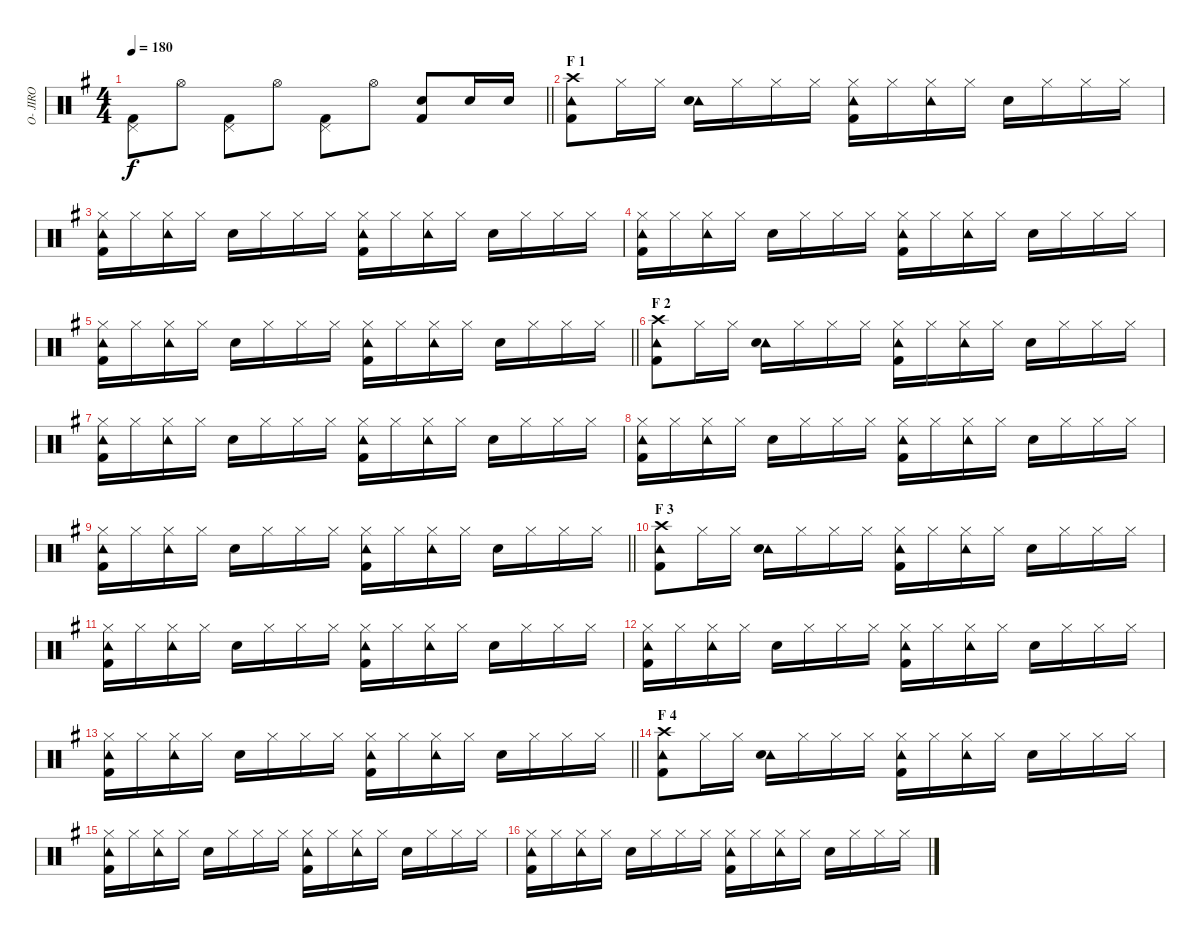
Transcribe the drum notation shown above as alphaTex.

\track ("O- JIRO" "O- JIRO") {instrument percussion}
\staff {score}
\articulation defaults
\ts (4 4)
\tempo 180
\clef neutral
\barLineRight lightlight
\ks g
("Pedal Hi-Hat (hit)" "Kick (hit) 2").8{dy f} "Hi-Hat (open)".8 ("Pedal Hi-Hat (hit)" "Kick (hit) 2").8 "Hi-Hat (open)".8 ("Pedal Hi-Hat (hit)" "Kick (hit) 2").8 "Hi-Hat (open)".8 ("Snare (hit) 2" "Kick (hit) 2").8 "Snare (hit) 2".16 "Snare (hit) 2".16 |
\section ("" "F 1")
("Crash high (hit)" "Kick (hit) 2" "Tambourine (hit)").8 "Hi-Hat (closed)".16 "Hi-Hat (closed)".16 ("Tambourine (hit)" "Snare (hit) 2").16 "Hi-Hat (closed)".16 "Hi-Hat (closed)".16 "Hi-Hat (closed)".16 ("Tambourine (hit)" "Kick (hit) 2" "Hi-Hat (closed)").16 "Hi-Hat (closed)".16 ("Hi-Hat (closed)" "Tambourine (hit)").16 "Hi-Hat (closed)".16 "Snare (hit) 2".16 "Hi-Hat (closed)".16 "Hi-Hat (closed)".16 "Hi-Hat (closed)".16 |
("Tambourine (hit)" "Kick (hit) 2" "Hi-Hat (closed)").16 "Hi-Hat (closed)".16 ("Hi-Hat (closed)" "Tambourine (hit)").16 "Hi-Hat (closed)".16 "Snare (hit) 2".16 "Hi-Hat (closed)".16 "Hi-Hat (closed)".16 "Hi-Hat (closed)".16 ("Tambourine (hit)" "Kick (hit) 2" "Hi-Hat (closed)").16 "Hi-Hat (closed)".16 ("Hi-Hat (closed)" "Tambourine (hit)").16 "Hi-Hat (closed)".16 "Snare (hit) 2".16 "Hi-Hat (closed)".16 "Hi-Hat (closed)".16 "Hi-Hat (closed)".16 |
("Tambourine (hit)" "Kick (hit) 2" "Hi-Hat (closed)").16 "Hi-Hat (closed)".16 ("Hi-Hat (closed)" "Tambourine (hit)").16 "Hi-Hat (closed)".16 "Snare (hit) 2".16 "Hi-Hat (closed)".16 "Hi-Hat (closed)".16 "Hi-Hat (closed)".16 ("Tambourine (hit)" "Kick (hit) 2" "Hi-Hat (closed)").16 "Hi-Hat (closed)".16 ("Hi-Hat (closed)" "Tambourine (hit)").16 "Hi-Hat (closed)".16 "Snare (hit) 2".16 "Hi-Hat (closed)".16 "Hi-Hat (closed)".16 "Hi-Hat (closed)".16 |
\barLineRight lightlight
("Tambourine (hit)" "Kick (hit) 2" "Hi-Hat (closed)").16 "Hi-Hat (closed)".16 ("Hi-Hat (closed)" "Tambourine (hit)").16 "Hi-Hat (closed)".16 "Snare (hit) 2".16 "Hi-Hat (closed)".16 "Hi-Hat (closed)".16 "Hi-Hat (closed)".16 ("Tambourine (hit)" "Kick (hit) 2" "Hi-Hat (closed)").16 "Hi-Hat (closed)".16 ("Hi-Hat (closed)" "Tambourine (hit)").16 "Hi-Hat (closed)".16 "Snare (hit) 2".16 "Hi-Hat (closed)".16 "Hi-Hat (closed)".16 "Hi-Hat (closed)".16 |
\section ("" "F 2")
("Crash high (hit)" "Kick (hit) 2" "Tambourine (hit)").8 "Hi-Hat (closed)".16 "Hi-Hat (closed)".16 ("Tambourine (hit)" "Snare (hit) 2").16 "Hi-Hat (closed)".16 "Hi-Hat (closed)".16 "Hi-Hat (closed)".16 ("Tambourine (hit)" "Kick (hit) 2" "Hi-Hat (closed)").16 "Hi-Hat (closed)".16 ("Hi-Hat (closed)" "Tambourine (hit)").16 "Hi-Hat (closed)".16 "Snare (hit) 2".16 "Hi-Hat (closed)".16 "Hi-Hat (closed)".16 "Hi-Hat (closed)".16 |
("Tambourine (hit)" "Kick (hit) 2" "Hi-Hat (closed)").16 "Hi-Hat (closed)".16 ("Hi-Hat (closed)" "Tambourine (hit)").16 "Hi-Hat (closed)".16 "Snare (hit) 2".16 "Hi-Hat (closed)".16 "Hi-Hat (closed)".16 "Hi-Hat (closed)".16 ("Tambourine (hit)" "Kick (hit) 2" "Hi-Hat (closed)").16 "Hi-Hat (closed)".16 ("Hi-Hat (closed)" "Tambourine (hit)").16 "Hi-Hat (closed)".16 "Snare (hit) 2".16 "Hi-Hat (closed)".16 "Hi-Hat (closed)".16 "Hi-Hat (closed)".16 |
("Tambourine (hit)" "Kick (hit) 2" "Hi-Hat (closed)").16 "Hi-Hat (closed)".16 ("Hi-Hat (closed)" "Tambourine (hit)").16 "Hi-Hat (closed)".16 "Snare (hit) 2".16 "Hi-Hat (closed)".16 "Hi-Hat (closed)".16 "Hi-Hat (closed)".16 ("Tambourine (hit)" "Kick (hit) 2" "Hi-Hat (closed)").16 "Hi-Hat (closed)".16 ("Hi-Hat (closed)" "Tambourine (hit)").16 "Hi-Hat (closed)".16 "Snare (hit) 2".16 "Hi-Hat (closed)".16 "Hi-Hat (closed)".16 "Hi-Hat (closed)".16 |
\barLineRight lightlight
("Tambourine (hit)" "Kick (hit) 2" "Hi-Hat (closed)").16 "Hi-Hat (closed)".16 ("Hi-Hat (closed)" "Tambourine (hit)").16 "Hi-Hat (closed)".16 "Snare (hit) 2".16 "Hi-Hat (closed)".16 "Hi-Hat (closed)".16 "Hi-Hat (closed)".16 ("Tambourine (hit)" "Kick (hit) 2" "Hi-Hat (closed)").16 "Hi-Hat (closed)".16 ("Hi-Hat (closed)" "Tambourine (hit)").16 "Hi-Hat (closed)".16 "Snare (hit) 2".16 "Hi-Hat (closed)".16 "Hi-Hat (closed)".16 "Hi-Hat (closed)".16 |
\section ("" "F 3")
("Crash high (hit)" "Kick (hit) 2" "Tambourine (hit)").8 "Hi-Hat (closed)".16 "Hi-Hat (closed)".16 ("Tambourine (hit)" "Snare (hit) 2").16 "Hi-Hat (closed)".16 "Hi-Hat (closed)".16 "Hi-Hat (closed)".16 ("Tambourine (hit)" "Kick (hit) 2" "Hi-Hat (closed)").16 "Hi-Hat (closed)".16 ("Hi-Hat (closed)" "Tambourine (hit)").16 "Hi-Hat (closed)".16 "Snare (hit) 2".16 "Hi-Hat (closed)".16 "Hi-Hat (closed)".16 "Hi-Hat (closed)".16 |
("Tambourine (hit)" "Kick (hit) 2" "Hi-Hat (closed)").16 "Hi-Hat (closed)".16 ("Hi-Hat (closed)" "Tambourine (hit)").16 "Hi-Hat (closed)".16 "Snare (hit) 2".16 "Hi-Hat (closed)".16 "Hi-Hat (closed)".16 "Hi-Hat (closed)".16 ("Tambourine (hit)" "Kick (hit) 2" "Hi-Hat (closed)").16 "Hi-Hat (closed)".16 ("Hi-Hat (closed)" "Tambourine (hit)").16 "Hi-Hat (closed)".16 "Snare (hit) 2".16 "Hi-Hat (closed)".16 "Hi-Hat (closed)".16 "Hi-Hat (closed)".16 |
("Tambourine (hit)" "Kick (hit) 2" "Hi-Hat (closed)").16 "Hi-Hat (closed)".16 ("Hi-Hat (closed)" "Tambourine (hit)").16 "Hi-Hat (closed)".16 "Snare (hit) 2".16 "Hi-Hat (closed)".16 "Hi-Hat (closed)".16 "Hi-Hat (closed)".16 ("Tambourine (hit)" "Kick (hit) 2" "Hi-Hat (closed)").16 "Hi-Hat (closed)".16 ("Hi-Hat (closed)" "Tambourine (hit)").16 "Hi-Hat (closed)".16 "Snare (hit) 2".16 "Hi-Hat (closed)".16 "Hi-Hat (closed)".16 "Hi-Hat (closed)".16 |
\barLineRight lightlight
("Tambourine (hit)" "Kick (hit) 2" "Hi-Hat (closed)").16 "Hi-Hat (closed)".16 ("Hi-Hat (closed)" "Tambourine (hit)").16 "Hi-Hat (closed)".16 "Snare (hit) 2".16 "Hi-Hat (closed)".16 "Hi-Hat (closed)".16 "Hi-Hat (closed)".16 ("Tambourine (hit)" "Kick (hit) 2" "Hi-Hat (closed)").16 "Hi-Hat (closed)".16 ("Hi-Hat (closed)" "Tambourine (hit)").16 "Hi-Hat (closed)".16 "Snare (hit) 2".16 "Hi-Hat (closed)".16 "Hi-Hat (closed)".16 "Hi-Hat (closed)".16 |
\section ("" "F 4")
("Crash high (hit)" "Kick (hit) 2" "Tambourine (hit)").8 "Hi-Hat (closed)".16 "Hi-Hat (closed)".16 ("Tambourine (hit)" "Snare (hit) 2").16 "Hi-Hat (closed)".16 "Hi-Hat (closed)".16 "Hi-Hat (closed)".16 ("Tambourine (hit)" "Kick (hit) 2" "Hi-Hat (closed)").16 "Hi-Hat (closed)".16 ("Hi-Hat (closed)" "Tambourine (hit)").16 "Hi-Hat (closed)".16 "Snare (hit) 2".16 "Hi-Hat (closed)".16 "Hi-Hat (closed)".16 "Hi-Hat (closed)".16 |
("Tambourine (hit)" "Kick (hit) 2" "Hi-Hat (closed)").16 "Hi-Hat (closed)".16 ("Hi-Hat (closed)" "Tambourine (hit)").16 "Hi-Hat (closed)".16 "Snare (hit) 2".16 "Hi-Hat (closed)".16 "Hi-Hat (closed)".16 "Hi-Hat (closed)".16 ("Tambourine (hit)" "Kick (hit) 2" "Hi-Hat (closed)").16 "Hi-Hat (closed)".16 ("Hi-Hat (closed)" "Tambourine (hit)").16 "Hi-Hat (closed)".16 "Snare (hit) 2".16 "Hi-Hat (closed)".16 "Hi-Hat (closed)".16 "Hi-Hat (closed)".16 |
("Tambourine (hit)" "Kick (hit) 2" "Hi-Hat (closed)").16 "Hi-Hat (closed)".16 ("Hi-Hat (closed)" "Tambourine (hit)").16 "Hi-Hat (closed)".16 "Snare (hit) 2".16 "Hi-Hat (closed)".16 "Hi-Hat (closed)".16 "Hi-Hat (closed)".16 ("Tambourine (hit)" "Kick (hit) 2" "Hi-Hat (closed)").16 "Hi-Hat (closed)".16 ("Hi-Hat (closed)" "Tambourine (hit)").16 "Hi-Hat (closed)".16 "Snare (hit) 2".16 "Hi-Hat (closed)".16 "Hi-Hat (closed)".16 "Hi-Hat (closed)".16
